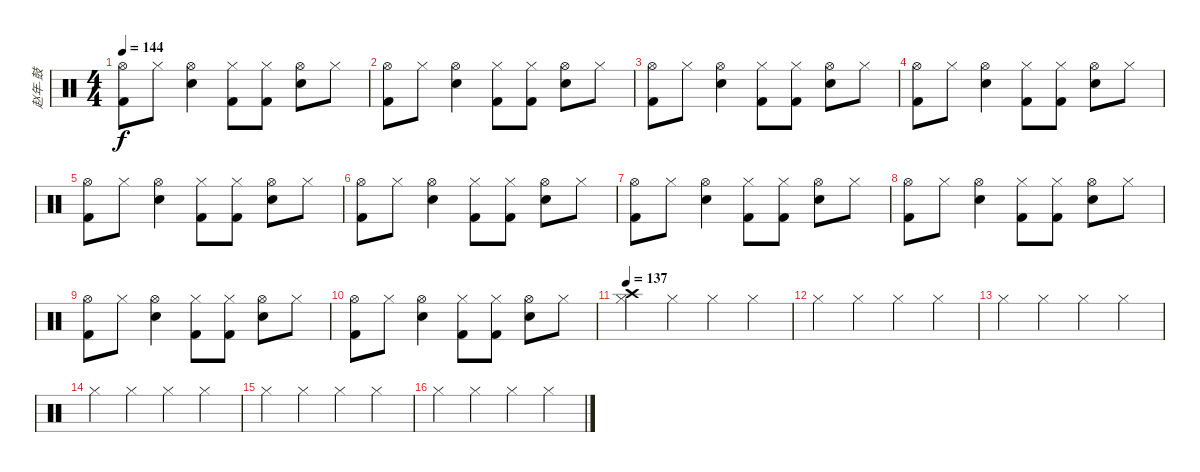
\track ("赵年-鼓" "赵年-鼓") {instrument percussion}
\staff {score}
\articulation defaults
\ts (4 4)
\tempo 144
\clef neutral
\ks c
("Hi-Hat (open)" "Kick (hit) 2").8{dy f} "Hi-Hat (closed)".8 ("Electric Snare (hit)" "Hi-Hat (open)").4 ("Hi-Hat (closed)" "Kick (hit) 2").8 ("Hi-Hat (closed)" "Kick (hit) 2").8 ("Hi-Hat (open)" "Electric Snare (hit)").8 "Hi-Hat (closed)".8 |
("Hi-Hat (open)" "Kick (hit) 2").8 "Hi-Hat (closed)".8 ("Electric Snare (hit)" "Hi-Hat (open)").4 ("Hi-Hat (closed)" "Kick (hit) 2").8 ("Hi-Hat (closed)" "Kick (hit) 2").8 ("Hi-Hat (open)" "Electric Snare (hit)").8 "Hi-Hat (closed)".8 |
("Hi-Hat (open)" "Kick (hit) 2").8 "Hi-Hat (closed)".8 ("Electric Snare (hit)" "Hi-Hat (open)").4 ("Hi-Hat (closed)" "Kick (hit) 2").8 ("Hi-Hat (closed)" "Kick (hit) 2").8 ("Hi-Hat (open)" "Electric Snare (hit)").8 "Hi-Hat (closed)".8 |
("Hi-Hat (open)" "Kick (hit) 2").8 "Hi-Hat (closed)".8 ("Electric Snare (hit)" "Hi-Hat (open)").4 ("Hi-Hat (closed)" "Kick (hit) 2").8 ("Hi-Hat (closed)" "Kick (hit) 2").8 ("Hi-Hat (open)" "Electric Snare (hit)").8 "Hi-Hat (closed)".8 |
("Hi-Hat (open)" "Kick (hit) 2").8 "Hi-Hat (closed)".8 ("Electric Snare (hit)" "Hi-Hat (open)").4 ("Hi-Hat (closed)" "Kick (hit) 2").8 ("Hi-Hat (closed)" "Kick (hit) 2").8 ("Hi-Hat (open)" "Electric Snare (hit)").8 "Hi-Hat (closed)".8 |
("Hi-Hat (open)" "Kick (hit) 2").8 "Hi-Hat (closed)".8 ("Electric Snare (hit)" "Hi-Hat (open)").4 ("Hi-Hat (closed)" "Kick (hit) 2").8 ("Hi-Hat (closed)" "Kick (hit) 2").8 ("Hi-Hat (open)" "Electric Snare (hit)").8 "Hi-Hat (closed)".8 |
("Hi-Hat (open)" "Kick (hit) 2").8 "Hi-Hat (closed)".8 ("Electric Snare (hit)" "Hi-Hat (open)").4 ("Hi-Hat (closed)" "Kick (hit) 2").8 ("Hi-Hat (closed)" "Kick (hit) 2").8 ("Hi-Hat (open)" "Electric Snare (hit)").8 "Hi-Hat (closed)".8 |
("Hi-Hat (open)" "Kick (hit) 2").8 "Hi-Hat (closed)".8 ("Electric Snare (hit)" "Hi-Hat (open)").4 ("Hi-Hat (closed)" "Kick (hit) 2").8 ("Hi-Hat (closed)" "Kick (hit) 2").8 ("Hi-Hat (open)" "Electric Snare (hit)").8 "Hi-Hat (closed)".8 |
("Hi-Hat (open)" "Kick (hit) 2").8 "Hi-Hat (closed)".8 ("Electric Snare (hit)" "Hi-Hat (open)").4 ("Hi-Hat (closed)" "Kick (hit) 2").8 ("Hi-Hat (closed)" "Kick (hit) 2").8 ("Hi-Hat (open)" "Electric Snare (hit)").8 "Hi-Hat (closed)".8 |
("Hi-Hat (open)" "Kick (hit) 2").8 "Hi-Hat (closed)".8 ("Electric Snare (hit)" "Hi-Hat (open)").4 ("Hi-Hat (closed)" "Kick (hit) 2").8 ("Hi-Hat (closed)" "Kick (hit) 2").8 ("Hi-Hat (open)" "Electric Snare (hit)").8 "Hi-Hat (closed)".8 |
\tempo 137
("Crash high (hit)" "Hi-Hat (closed)").4 "Hi-Hat (closed)".4 "Hi-Hat (closed)".4 "Hi-Hat (closed)".4 |
"Hi-Hat (closed)".4 "Hi-Hat (closed)".4 "Hi-Hat (closed)".4 "Hi-Hat (closed)".4 |
"Hi-Hat (closed)".4 "Hi-Hat (closed)".4 "Hi-Hat (closed)".4 "Hi-Hat (closed)".4 |
"Hi-Hat (closed)".4 "Hi-Hat (closed)".4 "Hi-Hat (closed)".4 "Hi-Hat (closed)".4 |
"Hi-Hat (closed)".4 "Hi-Hat (closed)".4 "Hi-Hat (closed)".4 "Hi-Hat (closed)".4 |
"Hi-Hat (closed)".4 "Hi-Hat (closed)".4 "Hi-Hat (closed)".4 "Hi-Hat (closed)".4
